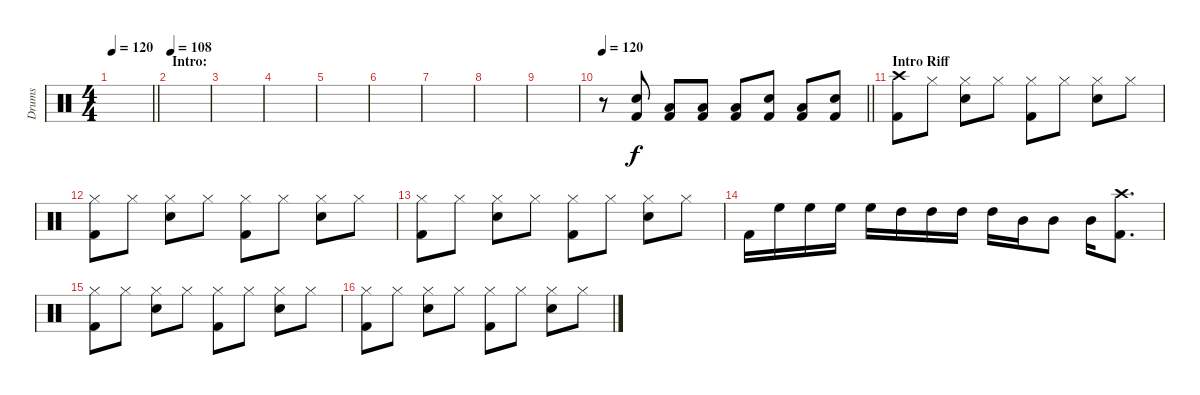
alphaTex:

\track ("Drums" "Drums") {instrument percussion}
\staff {score}
\articulation defaults
\ts (4 4)
\tempo 120
\clef neutral
\barLineRight lightlight
\ks c
|
\section ("" "Intro:")
\tempo 108
|
|
|
|
|
|
|
|
\tempo 120
\barLineRight lightlight
r.8 ("Electric Snare (hit)" "Kick (hit) 2").8 ("Low Floor Tom (hit)" "Kick (hit) 2").8 ("Low Floor Tom (hit)" "Kick (hit) 2").8 ("Low Floor Tom (hit)" "Kick (hit) 2").8 ("Electric Snare (hit)" "Kick (hit) 2").8 ("Low Floor Tom (hit)" "Kick (hit) 2").8 ("Electric Snare (hit)" "Kick (hit) 2").8 |
\section ("" "Intro Riff")
("Crash high (hit)" "Kick (hit) 2").8 "Hi-Hat (closed)".8 ("Hi-Hat (closed)" "Snare (hit) 2").8 "Hi-Hat (closed)".8 ("Hi-Hat (closed)" "Kick (hit) 2").8 "Hi-Hat (closed)".8 ("Hi-Hat (closed)" "Snare (hit) 2").8 "Hi-Hat (closed)".8 |
("Hi-Hat (closed)" "Kick (hit) 2").8 "Hi-Hat (closed)".8 ("Hi-Hat (closed)" "Snare (hit) 2").8 "Hi-Hat (closed)".8 ("Hi-Hat (closed)" "Kick (hit) 2").8 "Hi-Hat (closed)".8 ("Hi-Hat (closed)" "Snare (hit) 2").8 "Hi-Hat (closed)".8 |
("Hi-Hat (closed)" "Kick (hit) 2").8 "Hi-Hat (closed)".8 ("Hi-Hat (closed)" "Snare (hit) 2").8 "Hi-Hat (closed)".8 ("Hi-Hat (closed)" "Kick (hit) 2").8 "Hi-Hat (closed)".8 ("Hi-Hat (closed)" "Snare (hit) 2").8 "Hi-Hat (closed)".8 |
"Kick (hit) 2".16 "High Floor Tom (hit)".16 "High Floor Tom (hit)".16 "High Floor Tom (hit)".16 "High Floor Tom (hit)".16 "High Tom (hit)".16 "High Tom (hit)".16 "High Tom (hit)".16 "High Tom (hit)".16 "Mid Tom (hit)".16 "Mid Tom (hit)".8 "Mid Tom (hit)".16 ("Crash high (hit)" "Kick (hit) 2").8{d} |
("Hi-Hat (closed)" "Kick (hit) 2").8 "Hi-Hat (closed)".8 ("Hi-Hat (closed)" "Snare (hit) 2").8 "Hi-Hat (closed)".8 ("Hi-Hat (closed)" "Kick (hit) 2").8 "Hi-Hat (closed)".8 ("Hi-Hat (closed)" "Snare (hit) 2").8 "Hi-Hat (closed)".8 |
("Hi-Hat (closed)" "Kick (hit) 2").8 "Hi-Hat (closed)".8 ("Hi-Hat (closed)" "Snare (hit) 2").8 "Hi-Hat (closed)".8 ("Hi-Hat (closed)" "Kick (hit) 2").8 "Hi-Hat (closed)".8 ("Hi-Hat (closed)" "Snare (hit) 2").8 "Hi-Hat (closed)".8
